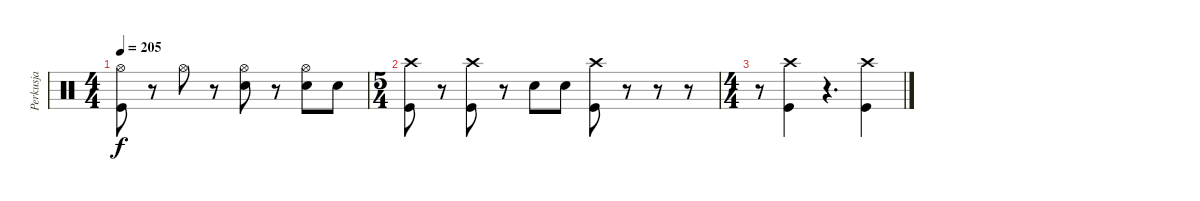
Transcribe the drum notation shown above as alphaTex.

\track ("Perkusja" "Perkusja") {instrument percussion}
\staff {score}
\articulation defaults
\ts (4 4)
\tempo 205
\clef neutral
\ks c
("Hi-Hat (open)" "Kick (hit)").8{dy f} r.8 "Hi-Hat (open)".8 r.8 ("Hi-Hat (open)" "Snare (hit) 2").8 r.8 ("Hi-Hat (open)" "Snare (hit) 2").8 "Snare (hit) 2".8 |
\ts (5 4)
("Crash high (hit)" "Kick (hit)").8 r.8 ("Crash high (hit)" "Kick (hit)").8 r.8 "Snare (hit) 2".8 "Snare (hit) 2".8 ("Crash high (hit)" "Kick (hit)").8 r.8 r.8 r.8 |
\ts (4 4)
r.8 ("Crash high (hit)" "Kick (hit)").4 r.4{d} ("Crash high (hit)" "Kick (hit)").4
